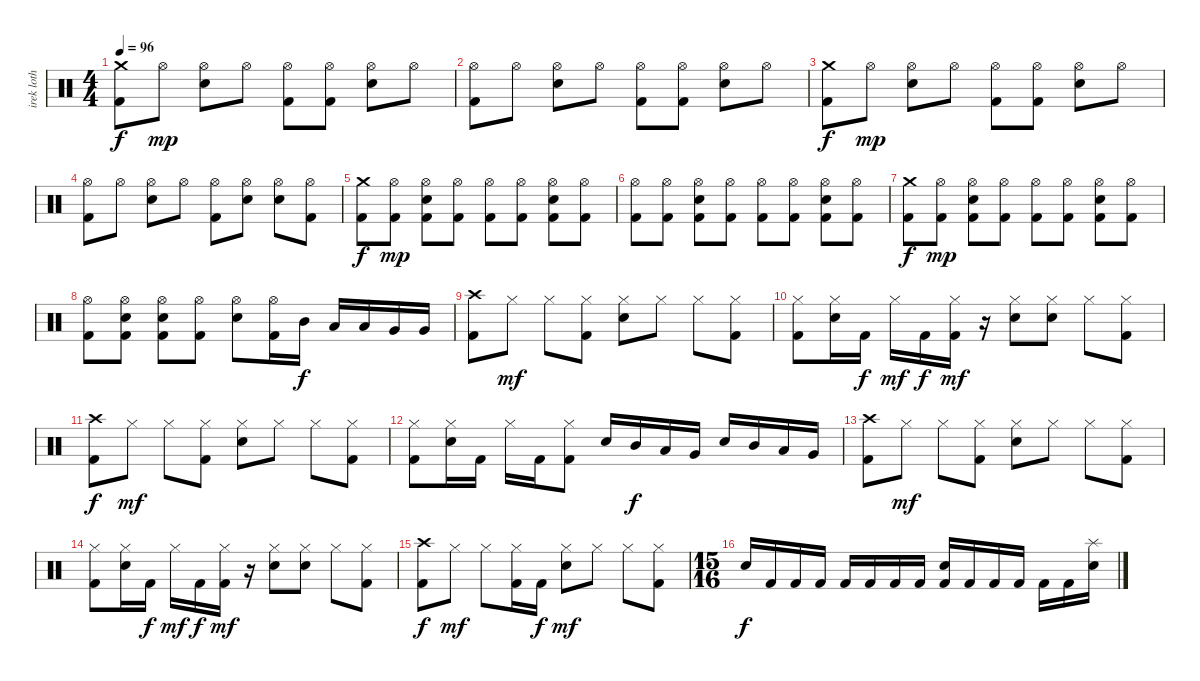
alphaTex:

\track ("irek loth" "irek loth") {instrument percussion}
\staff {score}
\articulation defaults
\ts (4 4)
\tempo 96
\clef neutral
\ks c
("Crash medium (hit)" "Kick (hit) 2").8{dy f} "Hi-Hat (open)".8{dy mp} ("Snare (hit) 2" "Hi-Hat (open)").8 "Hi-Hat (open)".8 ("Hi-Hat (open)" "Kick (hit) 2").8 ("Hi-Hat (open)" "Kick (hit) 2").8 ("Snare (hit) 2" "Hi-Hat (open)").8 "Hi-Hat (open)".8 |
("Hi-Hat (open)" "Kick (hit) 2").8 "Hi-Hat (open)".8 ("Snare (hit) 2" "Hi-Hat (open)").8 "Hi-Hat (open)".8 ("Hi-Hat (open)" "Kick (hit) 2").8 ("Hi-Hat (open)" "Kick (hit) 2").8 ("Snare (hit) 2" "Hi-Hat (open)").8 "Hi-Hat (open)".8 |
("Crash medium (hit)" "Kick (hit) 2").8{dy f} "Hi-Hat (open)".8{dy mp} ("Snare (hit) 2" "Hi-Hat (open)").8 "Hi-Hat (open)".8 ("Hi-Hat (open)" "Kick (hit) 2").8 ("Hi-Hat (open)" "Kick (hit) 2").8 ("Snare (hit) 2" "Hi-Hat (open)").8 "Hi-Hat (open)".8 |
("Hi-Hat (open)" "Kick (hit) 2").8 "Hi-Hat (open)".8 ("Snare (hit) 2" "Hi-Hat (open)").8 "Hi-Hat (open)".8 ("Hi-Hat (open)" "Kick (hit) 2").8 ("Snare (hit) 2" "Hi-Hat (open)").8 ("Snare (hit) 2" "Hi-Hat (open)").8 ("Hi-Hat (open)" "Kick (hit) 2").8 |
("Crash medium (hit)" "Kick (hit) 2").8{dy f} ("Hi-Hat (open)" "Kick (hit) 2").8{dy mp} ("Snare (hit) 2" "Hi-Hat (open)" "Kick (hit) 2").8 ("Hi-Hat (open)" "Kick (hit) 2").8 ("Hi-Hat (open)" "Kick (hit) 2").8 ("Hi-Hat (open)" "Kick (hit) 2").8 ("Snare (hit) 2" "Hi-Hat (open)" "Kick (hit) 2").8 ("Hi-Hat (open)" "Kick (hit) 2").8 |
("Hi-Hat (open)" "Kick (hit) 2").8 ("Hi-Hat (open)" "Kick (hit) 2").8 ("Snare (hit) 2" "Hi-Hat (open)" "Kick (hit) 2").8 ("Hi-Hat (open)" "Kick (hit) 2").8 ("Hi-Hat (open)" "Kick (hit) 2").8 ("Hi-Hat (open)" "Kick (hit) 2").8 ("Snare (hit) 2" "Hi-Hat (open)" "Kick (hit) 2").8 ("Hi-Hat (open)" "Kick (hit) 2").8 |
("Crash medium (hit)" "Kick (hit) 2").8{dy f} ("Hi-Hat (open)" "Kick (hit) 2").8{dy mp} ("Snare (hit) 2" "Hi-Hat (open)" "Kick (hit) 2").8 ("Hi-Hat (open)" "Kick (hit) 2").8 ("Hi-Hat (open)" "Kick (hit) 2").8 ("Hi-Hat (open)" "Kick (hit) 2").8 ("Snare (hit) 2" "Hi-Hat (open)" "Kick (hit) 2").8 ("Hi-Hat (open)" "Kick (hit) 2").8 |
("Hi-Hat (open)" "Kick (hit) 2").8 ("Snare (hit) 2" "Hi-Hat (open)" "Kick (hit) 2").8 ("Snare (hit) 2" "Hi-Hat (open)" "Kick (hit) 2").8 ("Hi-Hat (open)" "Kick (hit) 2").8 ("Snare (hit) 2" "Hi-Hat (open)").8 ("Hi-Hat (open)" "Kick (hit) 2").16 "Mid Tom (hit)".16{dy f} "Low Tom (hit)".16 "Low Tom (hit)".16 "Very Low Tom (hit)".16 "Very Low Tom (hit)".16 |
("Crash high (hit)" "Kick (hit) 2").8 "Hi-Hat (closed)".8{dy mf} "Hi-Hat (closed)".8 ("Hi-Hat (closed)" "Kick (hit) 2").8 ("Snare (hit) 2" "Hi-Hat (closed)").8 "Hi-Hat (closed)".8 "Hi-Hat (closed)".8 ("Hi-Hat (closed)" "Kick (hit) 2").8 |
("Hi-Hat (closed)" "Kick (hit) 2").8 ("Snare (hit) 2" "Hi-Hat (closed)").16 "Kick (hit) 2".16{dy f} "Hi-Hat (closed)".16{dy mf} "Kick (hit) 2".16{dy f} ("Hi-Hat (closed)" "Kick (hit) 2").16{dy mf} r.16 ("Snare (hit) 2" "Hi-Hat (closed)").8 ("Snare (hit) 2" "Hi-Hat (closed)").8 "Hi-Hat (closed)".8 ("Hi-Hat (closed)" "Kick (hit) 2").8 |
("Crash high (hit)" "Kick (hit) 2").8{dy f} "Hi-Hat (closed)".8{dy mf} "Hi-Hat (closed)".8 ("Hi-Hat (closed)" "Kick (hit) 2").8 ("Snare (hit) 2" "Hi-Hat (closed)").8 "Hi-Hat (closed)".8 "Hi-Hat (closed)".8 ("Hi-Hat (closed)" "Kick (hit) 2").8 |
("Hi-Hat (closed)" "Kick (hit) 2").8 ("Snare (hit) 2" "Hi-Hat (closed)").16 "Kick (hit) 2".16 "Hi-Hat (closed)".16 "Kick (hit) 2".16 ("Hi-Hat (closed)" "Kick (hit) 2").8 "Snare (hit) 2".16 "Mid Tom (hit)".16{dy f} "Low Tom (hit)".16 "Very Low Tom (hit)".16 "Snare (hit) 2".16 "Mid Tom (hit)".16 "Low Tom (hit)".16 "Very Low Tom (hit)".16 |
("Crash high (hit)" "Kick (hit) 2").8 "Hi-Hat (closed)".8{dy mf} "Hi-Hat (closed)".8 ("Hi-Hat (closed)" "Kick (hit) 2").8 ("Snare (hit) 2" "Hi-Hat (closed)").8 "Hi-Hat (closed)".8 "Hi-Hat (closed)".8 ("Hi-Hat (closed)" "Kick (hit) 2").8 |
("Hi-Hat (closed)" "Kick (hit) 2").8 ("Snare (hit) 2" "Hi-Hat (closed)").16 "Kick (hit) 2".16{dy f} "Hi-Hat (closed)".16{dy mf} "Kick (hit) 2".16{dy f} ("Hi-Hat (closed)" "Kick (hit) 2").16{dy mf} r.16 ("Snare (hit) 2" "Hi-Hat (closed)").8 ("Snare (hit) 2" "Hi-Hat (closed)").8 "Hi-Hat (closed)".8 ("Hi-Hat (closed)" "Kick (hit) 2").8 |
("Crash high (hit)" "Kick (hit) 2").8{dy f} "Hi-Hat (closed)".8{dy mf} "Hi-Hat (closed)".8 ("Hi-Hat (closed)" "Kick (hit) 2").16 "Kick (hit) 2".16{dy f} ("Snare (hit) 2" "Hi-Hat (closed)").8{dy mf} "Hi-Hat (closed)".8 "Hi-Hat (closed)".8 ("Hi-Hat (closed)" "Kick (hit) 2").8 |
\ts (15 16)
"Snare (hit) 2".16{dy f} "Kick (hit) 2".16 "Kick (hit) 2".16 "Kick (hit) 2".16 "Kick (hit) 2".16 "Kick (hit) 2".16 "Kick (hit) 2".16 "Kick (hit) 2".16 ("Snare (hit) 2" "Kick (hit) 2").16 "Kick (hit) 2".16 "Kick (hit) 2".16 "Kick (hit) 2".16 "Kick (hit) 2".16 "Kick (hit) 2".16 ("Snare (hit) 2" "Splash (hit)").16
